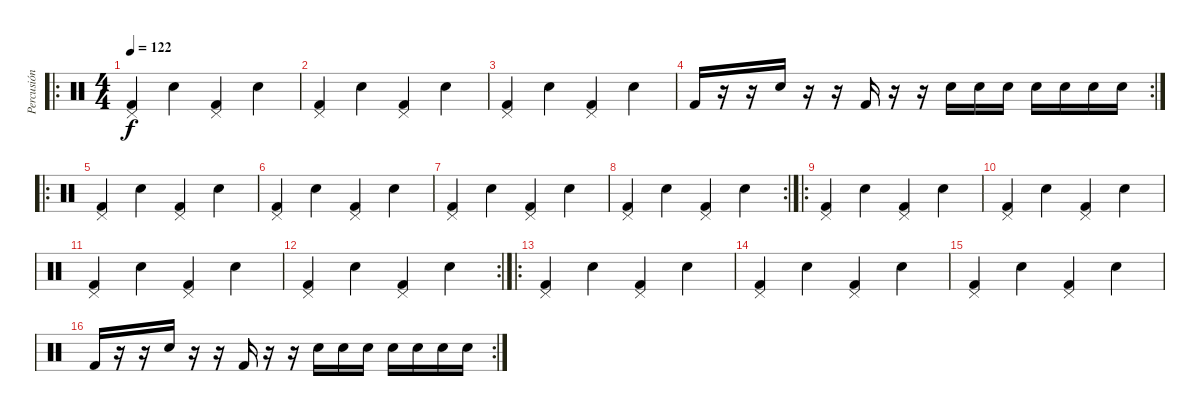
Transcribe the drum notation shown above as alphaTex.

\track ("Percusión" "Percusión") {instrument percussion}
\staff {score}
\articulation defaults
\ro
\ts (4 4)
\tempo 122
\clef neutral
\ks c
("Pedal Hi-Hat (hit)" "Kick (hit) 2").4{dy f} "Electric Snare (hit)".4 ("Pedal Hi-Hat (hit)" "Kick (hit) 2").4 "Electric Snare (hit)".4 |
("Pedal Hi-Hat (hit)" "Kick (hit) 2").4 "Electric Snare (hit)".4 ("Pedal Hi-Hat (hit)" "Kick (hit) 2").4 "Electric Snare (hit)".4 |
("Pedal Hi-Hat (hit)" "Kick (hit) 2").4 "Electric Snare (hit)".4 ("Pedal Hi-Hat (hit)" "Kick (hit) 2").4 "Electric Snare (hit)".4 |
\rc 2 "Kick (hit) 2".16
r.16 r.16 "Electric Snare (hit)".16 r.16 r.16 "Kick (hit) 2".16 r.16 r.16 "Electric Snare (hit)".16 "Electric Snare (hit)".16 "Electric Snare (hit)".16 "Electric Snare (hit)".16 "Electric Snare (hit)".16 "Electric Snare (hit)".16 "Electric Snare (hit)".16 |
\ro
("Pedal Hi-Hat (hit)" "Kick (hit) 2").4 "Electric Snare (hit)".4 ("Pedal Hi-Hat (hit)" "Kick (hit) 2").4 "Electric Snare (hit)".4 |
("Pedal Hi-Hat (hit)" "Kick (hit) 2").4 "Electric Snare (hit)".4 ("Pedal Hi-Hat (hit)" "Kick (hit) 2").4 "Electric Snare (hit)".4 |
("Pedal Hi-Hat (hit)" "Kick (hit) 2").4 "Electric Snare (hit)".4 ("Pedal Hi-Hat (hit)" "Kick (hit) 2").4 "Electric Snare (hit)".4 |
\rc 2
("Pedal Hi-Hat (hit)" "Kick (hit) 2").4 "Electric Snare (hit)".4 ("Pedal Hi-Hat (hit)" "Kick (hit) 2").4 "Electric Snare (hit)".4 |
\ro
("Pedal Hi-Hat (hit)" "Kick (hit) 2").4 "Electric Snare (hit)".4 ("Pedal Hi-Hat (hit)" "Kick (hit) 2").4 "Electric Snare (hit)".4 |
("Pedal Hi-Hat (hit)" "Kick (hit) 2").4 "Electric Snare (hit)".4 ("Pedal Hi-Hat (hit)" "Kick (hit) 2").4 "Electric Snare (hit)".4 |
("Pedal Hi-Hat (hit)" "Kick (hit) 2").4 "Electric Snare (hit)".4 ("Pedal Hi-Hat (hit)" "Kick (hit) 2").4 "Electric Snare (hit)".4 |
\rc 2
("Pedal Hi-Hat (hit)" "Kick (hit) 2").4 "Electric Snare (hit)".4 ("Pedal Hi-Hat (hit)" "Kick (hit) 2").4 "Electric Snare (hit)".4 |
\ro
("Pedal Hi-Hat (hit)" "Kick (hit) 2").4 "Electric Snare (hit)".4 ("Pedal Hi-Hat (hit)" "Kick (hit) 2").4 "Electric Snare (hit)".4 |
("Pedal Hi-Hat (hit)" "Kick (hit) 2").4 "Electric Snare (hit)".4 ("Pedal Hi-Hat (hit)" "Kick (hit) 2").4 "Electric Snare (hit)".4 |
("Pedal Hi-Hat (hit)" "Kick (hit) 2").4 "Electric Snare (hit)".4 ("Pedal Hi-Hat (hit)" "Kick (hit) 2").4 "Electric Snare (hit)".4 |
\rc 2 "Kick (hit) 2".16
r.16 r.16 "Electric Snare (hit)".16 r.16 r.16 "Kick (hit) 2".16 r.16 r.16 "Electric Snare (hit)".16 "Electric Snare (hit)".16 "Electric Snare (hit)".16 "Electric Snare (hit)".16 "Electric Snare (hit)".16 "Electric Snare (hit)".16 "Electric Snare (hit)".16
